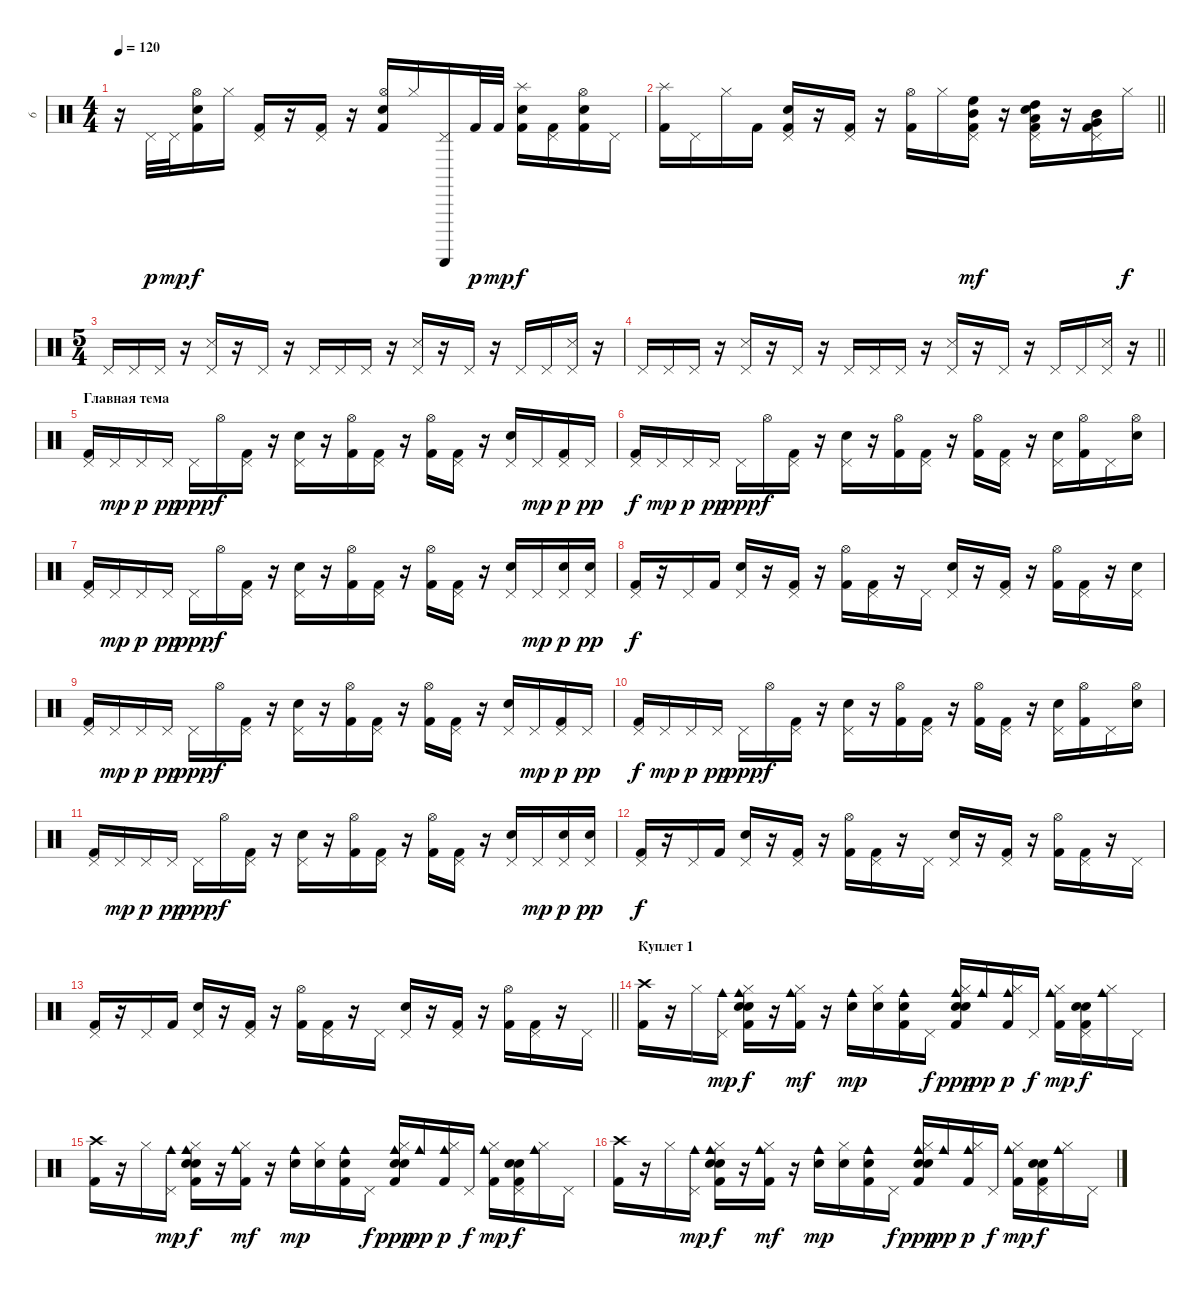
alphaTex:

\track ("6" "6") {instrument percussion}
\staff {score}
\articulation defaults
\ts (4 4)
\tempo 120
\clef neutral
\ks c
r.16{dy f} "Pedal Hi-Hat (hit)".32{dy p} "Pedal Hi-Hat (hit)".32{dy mp} ("Hi-Hat (open)" "Kick (hit) 2" "Hand Clap (hit)").16{dy f} "Hi-Hat (closed)".16 ("Pedal Hi-Hat (hit)" "Kick (hit) 2").16 r.16 ("Pedal Hi-Hat (hit)" "Kick (hit) 2").16 r.16 ("Hi-Hat (open)" "Kick (hit) 2" "Hand Clap (hit)").16 "Hi-Hat (closed)".16 ("Pedal Hi-Hat (hit)" "Guiro (scrap-return)").16 "Kick (hit) 2".32{dy p} "Kick (hit) 2".32{dy mp} ("Splash (hit)" "Kick (hit) 2" "Hand Clap (hit)").16{dy f} ("Pedal Hi-Hat (hit)" "Kick (hit) 2").16 ("Hi-Hat (open)" "Kick (hit) 2" "Hand Clap (hit)").16 "Pedal Hi-Hat (hit)".16 |
\barLineRight lightlight
("Splash (hit)" "Kick (hit) 2").16 "Pedal Hi-Hat (hit)".16 "Hi-Hat (closed)".16 "Kick (hit) 2".16 ("Pedal Hi-Hat (hit)" "Kick (hit) 2" "Hand Clap (hit)").16 r.16 ("Pedal Hi-Hat (hit)" "Kick (hit) 2").16 r.16 ("Hi-Hat (open)" "Kick (hit) 2").16 "Hi-Hat (closed)".16 ("Pedal Hi-Hat (hit)" "Mid Tom (hit)" "High Floor Tom (hit)" "Kick (hit) 2").16{dy mf} r.16 ("Pedal Hi-Hat (hit)" "Low Tom (hit)" "High Tom (hit)" "Kick (hit) 2" "Hand Clap (hit)").16 r.16 ("Pedal Hi-Hat (hit)" "Very Low Tom (hit)" "Mid Tom (hit)" "Kick (hit) 2").16 "Hi-Hat (closed)".16{dy f} |
\ts (5 4)
"Pedal Hi-Hat (hit)".16 "Pedal Hi-Hat (hit)".16 "Pedal Hi-Hat (hit)".16 r.16 ("Pedal Hi-Hat (hit)" "Snare (side stick) 3").16 r.16 "Pedal Hi-Hat (hit)".16 r.16 "Pedal Hi-Hat (hit)".16 "Pedal Hi-Hat (hit)".16 "Pedal Hi-Hat (hit)".16 r.16 ("Pedal Hi-Hat (hit)" "Snare (side stick) 3").16 r.16 "Pedal Hi-Hat (hit)".16 r.16 "Pedal Hi-Hat (hit)".16 "Pedal Hi-Hat (hit)".16 ("Pedal Hi-Hat (hit)" "Snare (side stick) 3").16 r.16 |
\barLineRight lightlight "Pedal Hi-Hat (hit)".16 "Pedal Hi-Hat (hit)".16 "Pedal Hi-Hat (hit)".16
r.16 ("Pedal Hi-Hat (hit)" "Snare (side stick) 3").16 r.16 "Pedal Hi-Hat (hit)".16 r.16 "Pedal Hi-Hat (hit)".16 "Pedal Hi-Hat (hit)".16 "Pedal Hi-Hat (hit)".16 r.16 ("Pedal Hi-Hat (hit)" "Snare (side stick) 3").16 r.16 "Pedal Hi-Hat (hit)".16 r.16 "Pedal Hi-Hat (hit)".16 "Pedal Hi-Hat (hit)".16 ("Pedal Hi-Hat (hit)" "Snare (side stick) 3").16 r.16 |
\section ("" "Главная тема")
("Pedal Hi-Hat (hit)" "Kick (hit) 2").16 "Pedal Hi-Hat (hit)".16{dy mp} "Pedal Hi-Hat (hit)".16{dy p} "Pedal Hi-Hat (hit)".16{dy pp} "Pedal Hi-Hat (hit)".16{dy ppp} "Hi-Hat (open)".16{dy f} ("Pedal Hi-Hat (hit)" "Kick (hit) 2").16 r.16 ("Pedal Hi-Hat (hit)" "Snare (hit) 2").16 r.16 ("Hi-Hat (open)" "Kick (hit) 2").16 ("Pedal Hi-Hat (hit)" "Kick (hit) 2").16 r.16 ("Hi-Hat (open)" "Kick (hit) 2").16 ("Pedal Hi-Hat (hit)" "Kick (hit) 2").16 r.16 ("Pedal Hi-Hat (hit)" "Snare (hit) 2").16 "Pedal Hi-Hat (hit)".16{dy mp} ("Pedal Hi-Hat (hit)" "Kick (hit) 2").16{dy p} "Pedal Hi-Hat (hit)".16{dy pp} |
("Pedal Hi-Hat (hit)" "Kick (hit) 2").16{dy f} "Pedal Hi-Hat (hit)".16{dy mp} "Pedal Hi-Hat (hit)".16{dy p} "Pedal Hi-Hat (hit)".16{dy pp} "Pedal Hi-Hat (hit)".16{dy ppp} "Hi-Hat (open)".16{dy f} ("Pedal Hi-Hat (hit)" "Kick (hit) 2").16 r.16 ("Pedal Hi-Hat (hit)" "Snare (hit) 2").16 r.16 ("Hi-Hat (open)" "Kick (hit) 2").16 ("Pedal Hi-Hat (hit)" "Kick (hit) 2").16 r.16 ("Hi-Hat (open)" "Kick (hit) 2").16 ("Pedal Hi-Hat (hit)" "Kick (hit) 2").16 r.16 ("Pedal Hi-Hat (hit)" "Snare (hit) 2").16 ("Hi-Hat (open)" "Kick (hit) 2").16 "Pedal Hi-Hat (hit)".16 ("Hi-Hat (open)" "Snare (hit) 2").16 |
("Pedal Hi-Hat (hit)" "Kick (hit) 2").16 "Pedal Hi-Hat (hit)".16{dy mp} "Pedal Hi-Hat (hit)".16{dy p} "Pedal Hi-Hat (hit)".16{dy pp} "Pedal Hi-Hat (hit)".16{dy ppp} "Hi-Hat (open)".16{dy f} ("Pedal Hi-Hat (hit)" "Kick (hit) 2").16 r.16 ("Pedal Hi-Hat (hit)" "Snare (hit) 2").16 r.16 ("Hi-Hat (open)" "Kick (hit) 2").16 ("Pedal Hi-Hat (hit)" "Kick (hit) 2").16 r.16 ("Hi-Hat (open)" "Kick (hit) 2").16 ("Pedal Hi-Hat (hit)" "Kick (hit) 2").16 r.16 ("Pedal Hi-Hat (hit)" "Snare (hit) 2").16 "Pedal Hi-Hat (hit)".16{dy mp} ("Pedal Hi-Hat (hit)" "Snare (hit) 2").16{dy p} ("Pedal Hi-Hat (hit)" "Snare (hit) 2").16{dy pp} |
("Pedal Hi-Hat (hit)" "Kick (hit) 2").16{dy f} r.16 "Pedal Hi-Hat (hit)".16 "Kick (hit) 2".16 ("Pedal Hi-Hat (hit)" "Snare (hit) 2").16 r.16 ("Pedal Hi-Hat (hit)" "Kick (hit) 2").16 r.16 ("Hi-Hat (open)" "Kick (hit) 2").16 ("Pedal Hi-Hat (hit)" "Kick (hit) 2").16 r.16 "Pedal Hi-Hat (hit)".16 ("Pedal Hi-Hat (hit)" "Snare (hit) 2").16 r.16 ("Pedal Hi-Hat (hit)" "Kick (hit) 2").16 r.16 ("Hi-Hat (open)" "Kick (hit) 2").16 ("Pedal Hi-Hat (hit)" "Kick (hit) 2").16 r.16 ("Pedal Hi-Hat (hit)" "Snare (hit) 2").16 |
("Pedal Hi-Hat (hit)" "Kick (hit) 2").16 "Pedal Hi-Hat (hit)".16{dy mp} "Pedal Hi-Hat (hit)".16{dy p} "Pedal Hi-Hat (hit)".16{dy pp} "Pedal Hi-Hat (hit)".16{dy ppp} "Hi-Hat (open)".16{dy f} ("Pedal Hi-Hat (hit)" "Kick (hit) 2").16 r.16 ("Pedal Hi-Hat (hit)" "Snare (hit) 2").16 r.16 ("Hi-Hat (open)" "Kick (hit) 2").16 ("Pedal Hi-Hat (hit)" "Kick (hit) 2").16 r.16 ("Hi-Hat (open)" "Kick (hit) 2").16 ("Pedal Hi-Hat (hit)" "Kick (hit) 2").16 r.16 ("Pedal Hi-Hat (hit)" "Snare (hit) 2").16 "Pedal Hi-Hat (hit)".16{dy mp} ("Pedal Hi-Hat (hit)" "Kick (hit) 2").16{dy p} "Pedal Hi-Hat (hit)".16{dy pp} |
("Pedal Hi-Hat (hit)" "Kick (hit) 2").16{dy f} "Pedal Hi-Hat (hit)".16{dy mp} "Pedal Hi-Hat (hit)".16{dy p} "Pedal Hi-Hat (hit)".16{dy pp} "Pedal Hi-Hat (hit)".16{dy ppp} "Hi-Hat (open)".16{dy f} ("Pedal Hi-Hat (hit)" "Kick (hit) 2").16 r.16 ("Pedal Hi-Hat (hit)" "Snare (hit) 2").16 r.16 ("Hi-Hat (open)" "Kick (hit) 2").16 ("Pedal Hi-Hat (hit)" "Kick (hit) 2").16 r.16 ("Hi-Hat (open)" "Kick (hit) 2").16 ("Pedal Hi-Hat (hit)" "Kick (hit) 2").16 r.16 ("Pedal Hi-Hat (hit)" "Snare (hit) 2").16 ("Hi-Hat (open)" "Kick (hit) 2").16 "Pedal Hi-Hat (hit)".16 ("Hi-Hat (open)" "Snare (hit) 2").16 |
("Pedal Hi-Hat (hit)" "Kick (hit) 2").16 "Pedal Hi-Hat (hit)".16{dy mp} "Pedal Hi-Hat (hit)".16{dy p} "Pedal Hi-Hat (hit)".16{dy pp} "Pedal Hi-Hat (hit)".16{dy ppp} "Hi-Hat (open)".16{dy f} ("Pedal Hi-Hat (hit)" "Kick (hit) 2").16 r.16 ("Pedal Hi-Hat (hit)" "Snare (hit) 2").16 r.16 ("Hi-Hat (open)" "Kick (hit) 2").16 ("Pedal Hi-Hat (hit)" "Kick (hit) 2").16 r.16 ("Hi-Hat (open)" "Kick (hit) 2").16 ("Pedal Hi-Hat (hit)" "Kick (hit) 2").16 r.16 ("Pedal Hi-Hat (hit)" "Snare (hit) 2").16 "Pedal Hi-Hat (hit)".16{dy mp} ("Pedal Hi-Hat (hit)" "Snare (hit) 2").16{dy p} ("Pedal Hi-Hat (hit)" "Snare (hit) 2").16{dy pp} |
("Pedal Hi-Hat (hit)" "Kick (hit) 2").16{dy f} r.16 "Pedal Hi-Hat (hit)".16 "Kick (hit) 2".16 ("Pedal Hi-Hat (hit)" "Snare (hit) 2").16 r.16 ("Pedal Hi-Hat (hit)" "Kick (hit) 2").16 r.16 ("Hi-Hat (open)" "Kick (hit) 2").16 ("Pedal Hi-Hat (hit)" "Kick (hit) 2").16 r.16 "Pedal Hi-Hat (hit)".16 ("Pedal Hi-Hat (hit)" "Snare (hit) 2").16 r.16 ("Pedal Hi-Hat (hit)" "Kick (hit) 2").16 r.16 ("Hi-Hat (open)" "Kick (hit) 2").16 ("Pedal Hi-Hat (hit)" "Kick (hit) 2").16 r.16 "Pedal Hi-Hat (hit)".16 |
\barLineRight lightlight
("Pedal Hi-Hat (hit)" "Kick (hit) 2").16 r.16 "Pedal Hi-Hat (hit)".16 "Kick (hit) 2".16 ("Pedal Hi-Hat (hit)" "Snare (hit) 2").16 r.16 ("Pedal Hi-Hat (hit)" "Kick (hit) 2").16 r.16 ("Hi-Hat (open)" "Kick (hit) 2").16 ("Pedal Hi-Hat (hit)" "Kick (hit) 2").16 r.16 "Pedal Hi-Hat (hit)".16 ("Pedal Hi-Hat (hit)" "Snare (hit) 2").16 r.16 ("Pedal Hi-Hat (hit)" "Kick (hit) 2").16 r.16 ("Hi-Hat (open)" "Kick (hit) 2").16 ("Pedal Hi-Hat (hit)" "Kick (hit) 2").16 r.16 "Pedal Hi-Hat (hit)".16 |
\section ("" "Куплет 1")
("Crash high (hit)" "Kick (hit) 2").16 r.16 "Hi-Hat (closed)".16 ("Pedal Hi-Hat (hit)" "Cowbell medium (hit)").16{dy mp} ("Hi-Hat (closed)" "Cowbell medium (hit)" "Kick (hit) 2" "Snare (hit)" "Snare (hit) 2").16{dy f} r.16 ("Hi-Hat (closed)" "Cowbell medium (hit)" "Kick (hit) 2").16{dy mf} r.16 ("Cowbell medium (hit)" "Snare (hit) 2").16{dy mp} ("Hi-Hat (closed)" "Snare (hit) 2").16 ("Cowbell medium (hit)" "Snare (hit) 2" "Kick (hit) 2").16 "Pedal Hi-Hat (hit)".16{dy f} ("Hi-Hat (closed)" "Cowbell medium (hit)" "Kick (hit) 2" "Snare (hit)" "Snare (hit) 2").16{dy ppp} "Cowbell medium (hit)".16{dy pp} ("Hi-Hat (closed)" "Cowbell medium (hit)" "Kick (hit) 2").16{dy p} "Pedal Hi-Hat (hit)".16{dy f} ("Hi-Hat (closed)" "Cowbell medium (hit)" "Kick (hit) 2").16{dy mp} ("Pedal Hi-Hat (hit)" "Kick (hit) 2" "Snare (hit)" "Snare (hit) 2").16{dy f} ("Hi-Hat (closed)" "Cowbell medium (hit)").16 "Pedal Hi-Hat (hit)".16 |
("Crash high (hit)" "Kick (hit) 2").16 r.16 "Hi-Hat (closed)".16 ("Pedal Hi-Hat (hit)" "Cowbell medium (hit)").16{dy mp} ("Hi-Hat (closed)" "Cowbell medium (hit)" "Kick (hit) 2" "Snare (hit)" "Snare (hit) 2").16{dy f} r.16 ("Hi-Hat (closed)" "Cowbell medium (hit)" "Kick (hit) 2").16{dy mf} r.16 ("Cowbell medium (hit)" "Snare (hit) 2").16{dy mp} ("Hi-Hat (closed)" "Snare (hit) 2").16 ("Cowbell medium (hit)" "Snare (hit) 2" "Kick (hit) 2").16 "Pedal Hi-Hat (hit)".16{dy f} ("Hi-Hat (closed)" "Cowbell medium (hit)" "Kick (hit) 2" "Snare (hit)" "Snare (hit) 2").16{dy ppp} "Cowbell medium (hit)".16{dy pp} ("Hi-Hat (closed)" "Cowbell medium (hit)" "Kick (hit) 2").16{dy p} "Pedal Hi-Hat (hit)".16{dy f} ("Hi-Hat (closed)" "Cowbell medium (hit)" "Kick (hit) 2").16{dy mp} ("Pedal Hi-Hat (hit)" "Kick (hit) 2" "Snare (hit)" "Snare (hit) 2").16{dy f} ("Hi-Hat (closed)" "Cowbell medium (hit)").16 "Pedal Hi-Hat (hit)".16 |
("Crash high (hit)" "Kick (hit) 2").16 r.16 "Hi-Hat (closed)".16 ("Pedal Hi-Hat (hit)" "Cowbell medium (hit)").16{dy mp} ("Hi-Hat (closed)" "Cowbell medium (hit)" "Kick (hit) 2" "Snare (hit)" "Snare (hit) 2").16{dy f} r.16 ("Hi-Hat (closed)" "Cowbell medium (hit)" "Kick (hit) 2").16{dy mf} r.16 ("Cowbell medium (hit)" "Snare (hit) 2").16{dy mp} ("Hi-Hat (closed)" "Snare (hit) 2").16 ("Cowbell medium (hit)" "Snare (hit) 2" "Kick (hit) 2").16 "Pedal Hi-Hat (hit)".16{dy f} ("Hi-Hat (closed)" "Cowbell medium (hit)" "Kick (hit) 2" "Snare (hit)" "Snare (hit) 2").16{dy ppp} "Cowbell medium (hit)".16{dy pp} ("Hi-Hat (closed)" "Cowbell medium (hit)" "Kick (hit) 2").16{dy p} "Pedal Hi-Hat (hit)".16{dy f} ("Hi-Hat (closed)" "Cowbell medium (hit)" "Kick (hit) 2").16{dy mp} ("Pedal Hi-Hat (hit)" "Kick (hit) 2" "Snare (hit)" "Snare (hit) 2").16{dy f} ("Hi-Hat (closed)" "Cowbell medium (hit)").16 "Pedal Hi-Hat (hit)".16
